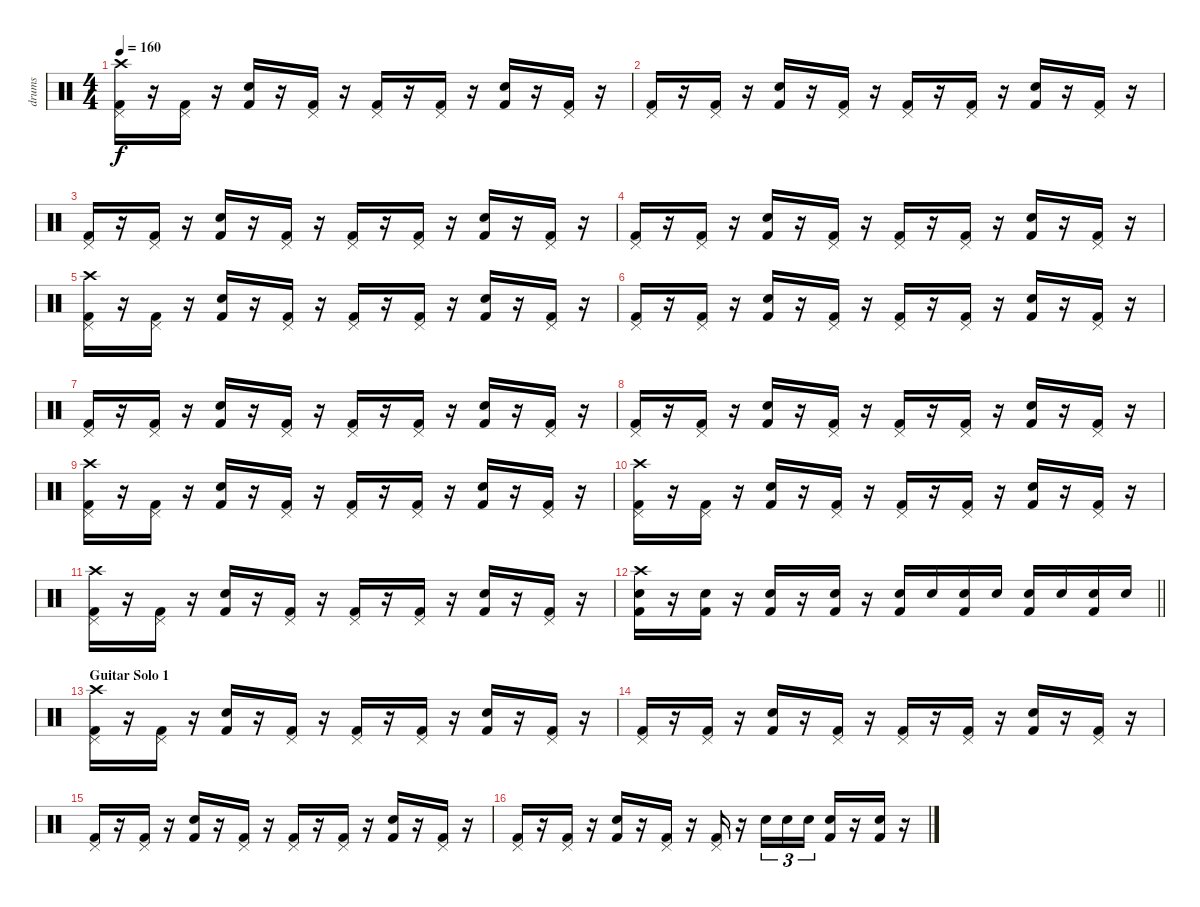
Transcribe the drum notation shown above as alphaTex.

\track ("drums" "drums") {instrument percussion}
\staff {score}
\articulation defaults
\ts (4 4)
\tempo 160
\clef neutral
\ks c
("Crash high (hit)" "Pedal Hi-Hat (hit)" "Kick (hit) 2").16{dy f} r.16 ("Pedal Hi-Hat (hit)" "Kick (hit) 2").16 r.16 ("Snare (hit) 2" "Kick (hit) 2").16 r.16 ("Pedal Hi-Hat (hit)" "Kick (hit) 2").16 r.16 ("Pedal Hi-Hat (hit)" "Kick (hit) 2").16 r.16 ("Pedal Hi-Hat (hit)" "Kick (hit) 2").16 r.16 ("Snare (hit) 2" "Kick (hit) 2").16 r.16 ("Pedal Hi-Hat (hit)" "Kick (hit) 2").16 r.16 |
("Pedal Hi-Hat (hit)" "Kick (hit) 2").16 r.16 ("Pedal Hi-Hat (hit)" "Kick (hit) 2").16 r.16 ("Snare (hit) 2" "Kick (hit) 2").16 r.16 ("Pedal Hi-Hat (hit)" "Kick (hit) 2").16 r.16 ("Pedal Hi-Hat (hit)" "Kick (hit) 2").16 r.16 ("Pedal Hi-Hat (hit)" "Kick (hit) 2").16 r.16 ("Snare (hit) 2" "Kick (hit) 2").16 r.16 ("Pedal Hi-Hat (hit)" "Kick (hit) 2").16 r.16 |
("Pedal Hi-Hat (hit)" "Kick (hit) 2").16 r.16 ("Pedal Hi-Hat (hit)" "Kick (hit) 2").16 r.16 ("Snare (hit) 2" "Kick (hit) 2").16 r.16 ("Pedal Hi-Hat (hit)" "Kick (hit) 2").16 r.16 ("Pedal Hi-Hat (hit)" "Kick (hit) 2").16 r.16 ("Pedal Hi-Hat (hit)" "Kick (hit) 2").16 r.16 ("Snare (hit) 2" "Kick (hit) 2").16 r.16 ("Pedal Hi-Hat (hit)" "Kick (hit) 2").16 r.16 |
("Pedal Hi-Hat (hit)" "Kick (hit) 2").16 r.16 ("Pedal Hi-Hat (hit)" "Kick (hit) 2").16 r.16 ("Snare (hit) 2" "Kick (hit) 2").16 r.16 ("Pedal Hi-Hat (hit)" "Kick (hit) 2").16 r.16 ("Pedal Hi-Hat (hit)" "Kick (hit) 2").16 r.16 ("Pedal Hi-Hat (hit)" "Kick (hit) 2").16 r.16 ("Snare (hit) 2" "Kick (hit) 2").16 r.16 ("Pedal Hi-Hat (hit)" "Kick (hit) 2").16 r.16 |
("Crash high (hit)" "Pedal Hi-Hat (hit)" "Kick (hit) 2").16 r.16 ("Pedal Hi-Hat (hit)" "Kick (hit) 2").16 r.16 ("Snare (hit) 2" "Kick (hit) 2").16 r.16 ("Pedal Hi-Hat (hit)" "Kick (hit) 2").16 r.16 ("Pedal Hi-Hat (hit)" "Kick (hit) 2").16 r.16 ("Pedal Hi-Hat (hit)" "Kick (hit) 2").16 r.16 ("Snare (hit) 2" "Kick (hit) 2").16 r.16 ("Pedal Hi-Hat (hit)" "Kick (hit) 2").16 r.16 |
("Pedal Hi-Hat (hit)" "Kick (hit) 2").16 r.16 ("Pedal Hi-Hat (hit)" "Kick (hit) 2").16 r.16 ("Snare (hit) 2" "Kick (hit) 2").16 r.16 ("Pedal Hi-Hat (hit)" "Kick (hit) 2").16 r.16 ("Pedal Hi-Hat (hit)" "Kick (hit) 2").16 r.16 ("Pedal Hi-Hat (hit)" "Kick (hit) 2").16 r.16 ("Snare (hit) 2" "Kick (hit) 2").16 r.16 ("Pedal Hi-Hat (hit)" "Kick (hit) 2").16 r.16 |
("Pedal Hi-Hat (hit)" "Kick (hit) 2").16 r.16 ("Pedal Hi-Hat (hit)" "Kick (hit) 2").16 r.16 ("Snare (hit) 2" "Kick (hit) 2").16 r.16 ("Pedal Hi-Hat (hit)" "Kick (hit) 2").16 r.16 ("Pedal Hi-Hat (hit)" "Kick (hit) 2").16 r.16 ("Pedal Hi-Hat (hit)" "Kick (hit) 2").16 r.16 ("Snare (hit) 2" "Kick (hit) 2").16 r.16 ("Pedal Hi-Hat (hit)" "Kick (hit) 2").16 r.16 |
("Pedal Hi-Hat (hit)" "Kick (hit) 2").16 r.16 ("Pedal Hi-Hat (hit)" "Kick (hit) 2").16 r.16 ("Snare (hit) 2" "Kick (hit) 2").16 r.16 ("Pedal Hi-Hat (hit)" "Kick (hit) 2").16 r.16 ("Pedal Hi-Hat (hit)" "Kick (hit) 2").16 r.16 ("Pedal Hi-Hat (hit)" "Kick (hit) 2").16 r.16 ("Snare (hit) 2" "Kick (hit) 2").16 r.16 ("Pedal Hi-Hat (hit)" "Kick (hit) 2").16 r.16 |
("Crash high (hit)" "Pedal Hi-Hat (hit)" "Kick (hit) 2").16 r.16 ("Pedal Hi-Hat (hit)" "Kick (hit) 2").16 r.16 ("Snare (hit) 2" "Kick (hit) 2").16 r.16 ("Pedal Hi-Hat (hit)" "Kick (hit) 2").16 r.16 ("Pedal Hi-Hat (hit)" "Kick (hit) 2").16 r.16 ("Pedal Hi-Hat (hit)" "Kick (hit) 2").16 r.16 ("Snare (hit) 2" "Kick (hit) 2").16 r.16 ("Pedal Hi-Hat (hit)" "Kick (hit) 2").16 r.16 |
("Crash high (hit)" "Pedal Hi-Hat (hit)" "Kick (hit) 2").16 r.16 ("Pedal Hi-Hat (hit)" "Kick (hit) 2").16 r.16 ("Snare (hit) 2" "Kick (hit) 2").16 r.16 ("Pedal Hi-Hat (hit)" "Kick (hit) 2").16 r.16 ("Pedal Hi-Hat (hit)" "Kick (hit) 2").16 r.16 ("Pedal Hi-Hat (hit)" "Kick (hit) 2").16 r.16 ("Snare (hit) 2" "Kick (hit) 2").16 r.16 ("Pedal Hi-Hat (hit)" "Kick (hit) 2").16 r.16 |
("Crash high (hit)" "Pedal Hi-Hat (hit)" "Kick (hit) 2").16 r.16 ("Pedal Hi-Hat (hit)" "Kick (hit) 2").16 r.16 ("Snare (hit) 2" "Kick (hit) 2").16 r.16 ("Pedal Hi-Hat (hit)" "Kick (hit) 2").16 r.16 ("Pedal Hi-Hat (hit)" "Kick (hit) 2").16 r.16 ("Pedal Hi-Hat (hit)" "Kick (hit) 2").16 r.16 ("Snare (hit) 2" "Kick (hit) 2").16 r.16 ("Pedal Hi-Hat (hit)" "Kick (hit) 2").16 r.16 |
\barLineRight lightlight
("Crash high (hit)" "Snare (hit) 2" "Kick (hit) 2").16 r.16 ("Snare (hit) 2" "Kick (hit) 2").16 r.16 ("Snare (hit) 2" "Kick (hit) 2").16 r.16 ("Snare (hit) 2" "Kick (hit) 2").16 r.16 ("Snare (hit) 2" "Kick (hit) 2").16 "Snare (hit) 2".16 ("Snare (hit) 2" "Kick (hit) 2").16 "Snare (hit) 2".16 ("Electric Snare (hit)" "Kick (hit) 2").16 "Electric Snare (hit)".16 ("Electric Snare (hit)" "Kick (hit) 2").16 "Electric Snare (hit)".16 |
\section ("" "Guitar Solo 1")
("Crash high (hit)" "Pedal Hi-Hat (hit)" "Kick (hit) 2").16 r.16 ("Pedal Hi-Hat (hit)" "Kick (hit) 2").16 r.16 ("Snare (hit) 2" "Kick (hit) 2").16 r.16 ("Pedal Hi-Hat (hit)" "Kick (hit) 2").16 r.16 ("Pedal Hi-Hat (hit)" "Kick (hit) 2").16 r.16 ("Pedal Hi-Hat (hit)" "Kick (hit) 2").16 r.16 ("Snare (hit) 2" "Kick (hit) 2").16 r.16 ("Pedal Hi-Hat (hit)" "Kick (hit) 2").16 r.16 |
("Pedal Hi-Hat (hit)" "Kick (hit) 2").16 r.16 ("Pedal Hi-Hat (hit)" "Kick (hit) 2").16 r.16 ("Snare (hit) 2" "Kick (hit) 2").16 r.16 ("Pedal Hi-Hat (hit)" "Kick (hit) 2").16 r.16 ("Pedal Hi-Hat (hit)" "Kick (hit) 2").16 r.16 ("Pedal Hi-Hat (hit)" "Kick (hit) 2").16 r.16 ("Snare (hit) 2" "Kick (hit) 2").16 r.16 ("Pedal Hi-Hat (hit)" "Kick (hit) 2").16 r.16 |
("Pedal Hi-Hat (hit)" "Kick (hit) 2").16 r.16 ("Pedal Hi-Hat (hit)" "Kick (hit) 2").16 r.16 ("Snare (hit) 2" "Kick (hit) 2").16 r.16 ("Pedal Hi-Hat (hit)" "Kick (hit) 2").16 r.16 ("Pedal Hi-Hat (hit)" "Kick (hit) 2").16 r.16 ("Pedal Hi-Hat (hit)" "Kick (hit) 2").16 r.16 ("Snare (hit) 2" "Kick (hit) 2").16 r.16 ("Pedal Hi-Hat (hit)" "Kick (hit) 2").16 r.16 |
("Pedal Hi-Hat (hit)" "Kick (hit) 2").16 r.16 ("Pedal Hi-Hat (hit)" "Kick (hit) 2").16 r.16 ("Snare (hit) 2" "Kick (hit) 2").16 r.16 ("Pedal Hi-Hat (hit)" "Kick (hit) 2").16 r.16 ("Pedal Hi-Hat (hit)" "Kick (hit) 2").16 r.16 "Snare (hit) 2".16{tu (3 2)} "Electric Snare (hit)".16{tu (3 2)} "Snare (hit) 2".16{tu (3 2)} ("Electric Snare (hit)" "Kick (hit) 2").16 r.16 ("Electric Snare (hit)" "Kick (hit) 2").16 r.16
